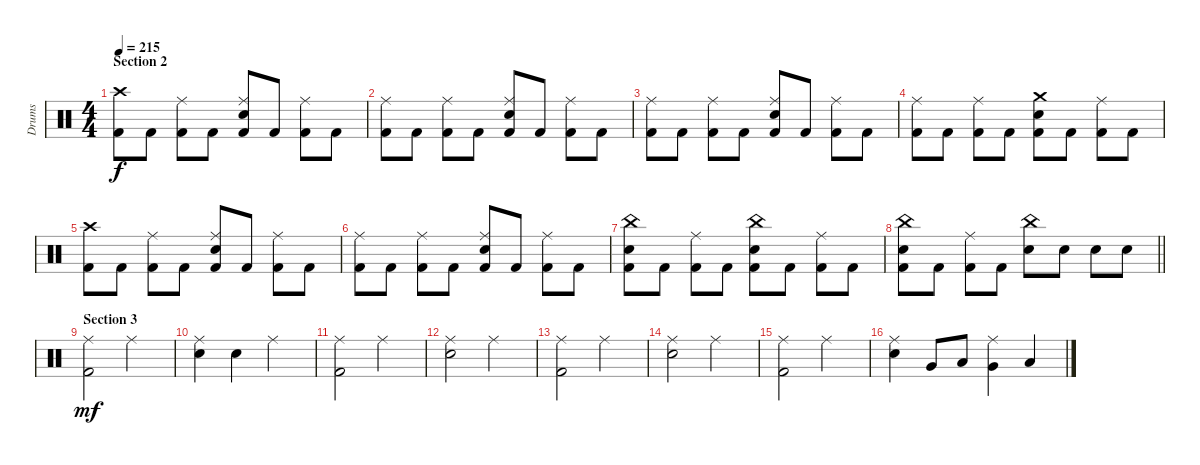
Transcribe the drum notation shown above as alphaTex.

\track ("Drums" "Drums") {instrument percussion}
\staff {score}
\articulation defaults
\ts (4 4)
\section ("" "Section 2")
\tempo 215
\clef neutral
\ks c
("Crash high (hit)" "Kick (hit) 2").8{dy f} "Kick (hit) 2".8 ("Ride (middle)" "Kick (hit) 2").8 "Kick (hit) 2".8 ("Ride (middle)" "Snare (hit) 2" "Kick (hit) 2").8 "Kick (hit) 2".8 ("Ride (middle)" "Kick (hit) 2").8 "Kick (hit) 2".8 |
("Ride (middle)" "Kick (hit) 2").8 "Kick (hit) 2".8 ("Ride (middle)" "Kick (hit) 2").8 "Kick (hit) 2".8 ("Ride (middle)" "Snare (hit) 2" "Kick (hit) 2").8 "Kick (hit) 2".8 ("Ride (middle)" "Kick (hit) 2").8 "Kick (hit) 2".8 |
("Ride (middle)" "Kick (hit) 2").8 "Kick (hit) 2".8 ("Ride (middle)" "Kick (hit) 2").8 "Kick (hit) 2".8 ("Ride (middle)" "Snare (hit) 2" "Kick (hit) 2").8 "Kick (hit) 2".8 ("Ride (middle)" "Kick (hit) 2").8 "Kick (hit) 2".8 |
("Ride (middle)" "Kick (hit) 2").8 "Kick (hit) 2".8 ("Ride (middle)" "Kick (hit) 2").8 "Kick (hit) 2".8 ("Crash medium (hit)" "Snare (hit) 2" "Kick (hit) 2").8 "Kick (hit) 2".8 ("Ride (middle)" "Kick (hit) 2").8 "Kick (hit) 2".8 |
("Crash high (hit)" "Kick (hit) 2").8 "Kick (hit) 2".8 ("Ride (middle)" "Kick (hit) 2").8 "Kick (hit) 2".8 ("Ride (middle)" "Snare (hit) 2" "Kick (hit) 2").8 "Kick (hit) 2".8 ("Ride (middle)" "Kick (hit) 2").8 "Kick (hit) 2".8 |
("Ride (middle)" "Kick (hit) 2").8 "Kick (hit) 2".8 ("Ride (middle)" "Kick (hit) 2").8 "Kick (hit) 2".8 ("Ride (middle)" "Snare (hit) 2" "Kick (hit) 2").8 "Kick (hit) 2".8 ("Ride (middle)" "Kick (hit) 2").8 "Kick (hit) 2".8 |
("China (hit)" "Snare (hit) 2" "Kick (hit) 2").8 "Kick (hit) 2".8 ("Ride (middle)" "Kick (hit) 2").8 "Kick (hit) 2".8 ("China (hit)" "Snare (hit) 2" "Kick (hit) 2").8 "Kick (hit) 2".8 ("Ride (middle)" "Kick (hit) 2").8 "Kick (hit) 2".8 |
\barLineRight lightlight
("China (hit)" "Snare (hit) 2" "Kick (hit) 2").8 "Kick (hit) 2".8 ("Ride (middle)" "Kick (hit) 2").8 "Kick (hit) 2".8 ("China (hit)" "Snare (hit) 2").8 "Snare (hit) 2".8 "Snare (hit) 2".8 "Snare (hit) 2".8 |
\section ("" "Section 3")
("Ride (middle)" "Kick (hit) 2").2{dy mf} "Ride (middle)".2 |
("Ride (middle)" "Snare (hit) 2").4 "Snare (hit) 2".4 "Ride (middle)".2 |
("Ride (middle)" "Kick (hit) 2").2 "Ride (middle)".2 |
("Ride (middle)" "Snare (hit) 2").2 "Ride (middle)".2 |
("Ride (middle)" "Kick (hit) 2").2 "Ride (middle)".2 |
("Ride (middle)" "Snare (hit) 2").2 "Ride (middle)".2 |
("Ride (middle)" "Kick (hit) 2").2 "Ride (middle)".2 |
("Ride (middle)" "Snare (hit) 2").4 "Very Low Tom (hit)".8 "Low Tom (hit)".8 ("Ride (middle)" "Very Low Tom (hit)").4 "Low Floor Tom (hit)".4
